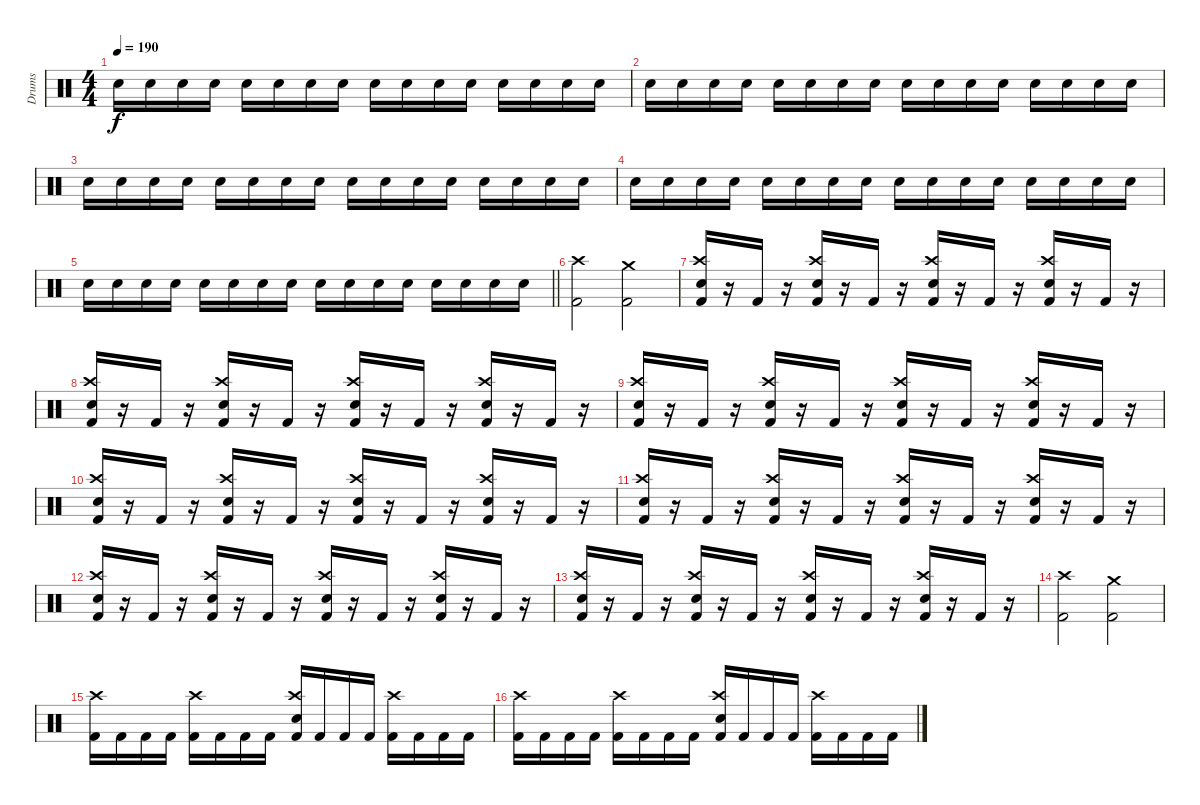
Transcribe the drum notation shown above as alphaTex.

\track ("Drums" "Drums") {instrument percussion}
\staff {score}
\articulation defaults
\ts (4 4)
\tempo 190
\clef neutral
\ks c "Electric Snare (hit)".16{dy f} "Electric Snare (hit)".16 "Electric Snare (hit)".16 "Electric Snare (hit)".16 "Electric Snare (hit)".16 "Electric Snare (hit)".16 "Electric Snare (hit)".16 "Electric Snare (hit)".16 "Electric Snare (hit)".16 "Electric Snare (hit)".16 "Electric Snare (hit)".16 "Electric Snare (hit)".16 "Electric Snare (hit)".16 "Electric Snare (hit)".16 "Electric Snare (hit)".16 "Electric Snare (hit)".16
|
"Electric Snare (hit)".16 "Electric Snare (hit)".16 "Electric Snare (hit)".16 "Electric Snare (hit)".16 "Electric Snare (hit)".16 "Electric Snare (hit)".16 "Electric Snare (hit)".16 "Electric Snare (hit)".16 "Electric Snare (hit)".16 "Electric Snare (hit)".16 "Electric Snare (hit)".16 "Electric Snare (hit)".16 "Electric Snare (hit)".16 "Electric Snare (hit)".16 "Electric Snare (hit)".16 "Electric Snare (hit)".16 |
"Electric Snare (hit)".16 "Electric Snare (hit)".16 "Electric Snare (hit)".16 "Electric Snare (hit)".16 "Electric Snare (hit)".16 "Electric Snare (hit)".16 "Electric Snare (hit)".16 "Electric Snare (hit)".16 "Electric Snare (hit)".16 "Electric Snare (hit)".16 "Electric Snare (hit)".16 "Electric Snare (hit)".16 "Electric Snare (hit)".16 "Electric Snare (hit)".16 "Electric Snare (hit)".16 "Electric Snare (hit)".16 |
"Electric Snare (hit)".16 "Electric Snare (hit)".16 "Electric Snare (hit)".16 "Electric Snare (hit)".16 "Electric Snare (hit)".16 "Electric Snare (hit)".16 "Electric Snare (hit)".16 "Electric Snare (hit)".16 "Electric Snare (hit)".16 "Electric Snare (hit)".16 "Electric Snare (hit)".16 "Electric Snare (hit)".16 "Electric Snare (hit)".16 "Electric Snare (hit)".16 "Electric Snare (hit)".16 "Electric Snare (hit)".16 |
\barLineRight lightlight "Electric Snare (hit)".16 "Electric Snare (hit)".16 "Electric Snare (hit)".16 "Electric Snare (hit)".16 "Electric Snare (hit)".16 "Electric Snare (hit)".16 "Electric Snare (hit)".16 "Electric Snare (hit)".16 "Electric Snare (hit)".16 "Electric Snare (hit)".16 "Electric Snare (hit)".16 "Electric Snare (hit)".16 "Electric Snare (hit)".16 "Electric Snare (hit)".16 "Electric Snare (hit)".16 "Electric Snare (hit)".16
|
("Crash high (hit)" "Kick (hit) 2").2 ("Crash medium (hit)" "Kick (hit) 2").2 |
("Crash high (hit)" "Electric Snare (hit)" "Kick (hit) 2").16 r.16 "Kick (hit) 2".16 r.16 ("Crash high (hit)" "Electric Snare (hit)" "Kick (hit) 2").16 r.16 "Kick (hit) 2".16 r.16 ("Crash high (hit)" "Electric Snare (hit)" "Kick (hit) 2").16 r.16 "Kick (hit) 2".16 r.16 ("Crash high (hit)" "Electric Snare (hit)" "Kick (hit) 2").16 r.16 "Kick (hit) 2".16 r.16 |
("Crash high (hit)" "Electric Snare (hit)" "Kick (hit) 2").16 r.16 "Kick (hit) 2".16 r.16 ("Crash high (hit)" "Electric Snare (hit)" "Kick (hit) 2").16 r.16 "Kick (hit) 2".16 r.16 ("Crash high (hit)" "Electric Snare (hit)" "Kick (hit) 2").16 r.16 "Kick (hit) 2".16 r.16 ("Crash high (hit)" "Electric Snare (hit)" "Kick (hit) 2").16 r.16 "Kick (hit) 2".16 r.16 |
("Crash high (hit)" "Electric Snare (hit)" "Kick (hit) 2").16 r.16 "Kick (hit) 2".16 r.16 ("Crash high (hit)" "Electric Snare (hit)" "Kick (hit) 2").16 r.16 "Kick (hit) 2".16 r.16 ("Crash high (hit)" "Electric Snare (hit)" "Kick (hit) 2").16 r.16 "Kick (hit) 2".16 r.16 ("Crash high (hit)" "Electric Snare (hit)" "Kick (hit) 2").16 r.16 "Kick (hit) 2".16 r.16 |
("Crash high (hit)" "Electric Snare (hit)" "Kick (hit) 2").16 r.16 "Kick (hit) 2".16 r.16 ("Crash high (hit)" "Electric Snare (hit)" "Kick (hit) 2").16 r.16 "Kick (hit) 2".16 r.16 ("Crash high (hit)" "Electric Snare (hit)" "Kick (hit) 2").16 r.16 "Kick (hit) 2".16 r.16 ("Crash high (hit)" "Electric Snare (hit)" "Kick (hit) 2").16 r.16 "Kick (hit) 2".16 r.16 |
("Crash high (hit)" "Electric Snare (hit)" "Kick (hit) 2").16 r.16 "Kick (hit) 2".16 r.16 ("Crash high (hit)" "Electric Snare (hit)" "Kick (hit) 2").16 r.16 "Kick (hit) 2".16 r.16 ("Crash high (hit)" "Electric Snare (hit)" "Kick (hit) 2").16 r.16 "Kick (hit) 2".16 r.16 ("Crash high (hit)" "Electric Snare (hit)" "Kick (hit) 2").16 r.16 "Kick (hit) 2".16 r.16 |
("Crash high (hit)" "Electric Snare (hit)" "Kick (hit) 2").16 r.16 "Kick (hit) 2".16 r.16 ("Crash high (hit)" "Electric Snare (hit)" "Kick (hit) 2").16 r.16 "Kick (hit) 2".16 r.16 ("Crash high (hit)" "Electric Snare (hit)" "Kick (hit) 2").16 r.16 "Kick (hit) 2".16 r.16 ("Crash high (hit)" "Electric Snare (hit)" "Kick (hit) 2").16 r.16 "Kick (hit) 2".16 r.16 |
("Crash high (hit)" "Electric Snare (hit)" "Kick (hit) 2").16 r.16 "Kick (hit) 2".16 r.16 ("Crash high (hit)" "Electric Snare (hit)" "Kick (hit) 2").16 r.16 "Kick (hit) 2".16 r.16 ("Crash high (hit)" "Electric Snare (hit)" "Kick (hit) 2").16 r.16 "Kick (hit) 2".16 r.16 ("Crash high (hit)" "Electric Snare (hit)" "Kick (hit) 2").16 r.16 "Kick (hit) 2".16 r.16 |
("Crash high (hit)" "Kick (hit) 2").2{beam merge} ("Crash medium (hit)" "Kick (hit) 2").2 |
("Crash high (hit)" "Kick (hit) 2").16 "Kick (hit) 2".16 "Kick (hit) 2".16 "Kick (hit) 2".16 ("Crash high (hit)" "Kick (hit) 2").16 "Kick (hit) 2".16 "Kick (hit) 2".16 "Kick (hit) 2".16 ("Crash high (hit)" "Electric Snare (hit)" "Kick (hit) 2").16 "Kick (hit) 2".16 "Kick (hit) 2".16 "Kick (hit) 2".16 ("Crash high (hit)" "Kick (hit) 2").16 "Kick (hit) 2".16 "Kick (hit) 2".16 "Kick (hit) 2".16 |
("Crash high (hit)" "Kick (hit) 2").16 "Kick (hit) 2".16 "Kick (hit) 2".16 "Kick (hit) 2".16 ("Crash high (hit)" "Kick (hit) 2").16 "Kick (hit) 2".16 "Kick (hit) 2".16 "Kick (hit) 2".16 ("Crash high (hit)" "Electric Snare (hit)" "Kick (hit) 2").16 "Kick (hit) 2".16 "Kick (hit) 2".16 "Kick (hit) 2".16 ("Crash high (hit)" "Kick (hit) 2").16 "Kick (hit) 2".16 "Kick (hit) 2".16 "Kick (hit) 2".16
